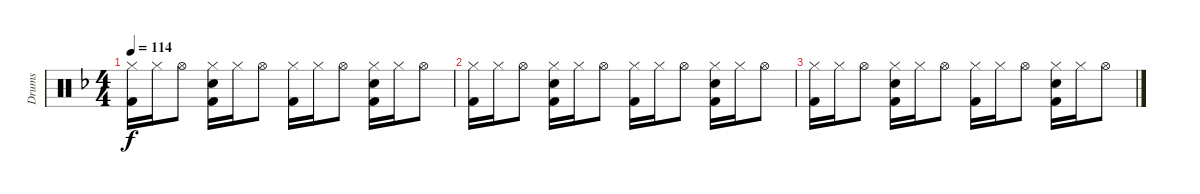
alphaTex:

\track ("Drums" "Drums") {instrument percussion}
\staff {score}
\articulation defaults
\ts (4 4)
\tempo 114
\clef neutral
\ks f
("Hi-Hat (closed)" "Kick (hit) 2").16{dy f} "Hi-Hat (closed)".16 "Hi-Hat (open)".8 ("Hi-Hat (closed)" "Electric Snare (hit)" "Kick (hit) 2").16 "Hi-Hat (closed)".16 "Hi-Hat (open)".8 ("Hi-Hat (closed)" "Kick (hit) 2").16 "Hi-Hat (closed)".16 "Hi-Hat (open)".8 ("Hi-Hat (closed)" "Electric Snare (hit)" "Kick (hit) 2").16 "Hi-Hat (closed)".16 "Hi-Hat (open)".8 |
("Hi-Hat (closed)" "Kick (hit) 2").16 "Hi-Hat (closed)".16 "Hi-Hat (open)".8 ("Hi-Hat (closed)" "Electric Snare (hit)" "Kick (hit) 2").16 "Hi-Hat (closed)".16 "Hi-Hat (open)".8 ("Hi-Hat (closed)" "Kick (hit) 2").16 "Hi-Hat (closed)".16 "Hi-Hat (open)".8 ("Hi-Hat (closed)" "Electric Snare (hit)" "Kick (hit) 2").16 "Hi-Hat (closed)".16 "Hi-Hat (open)".8 |
("Hi-Hat (closed)" "Kick (hit) 2").16 "Hi-Hat (closed)".16 "Hi-Hat (open)".8 ("Hi-Hat (closed)" "Electric Snare (hit)" "Kick (hit) 2").16 "Hi-Hat (closed)".16 "Hi-Hat (open)".8 ("Hi-Hat (closed)" "Kick (hit) 2").16 "Hi-Hat (closed)".16 "Hi-Hat (open)".8 ("Hi-Hat (closed)" "Electric Snare (hit)" "Kick (hit) 2").16 "Hi-Hat (closed)".16 "Hi-Hat (open)".8
